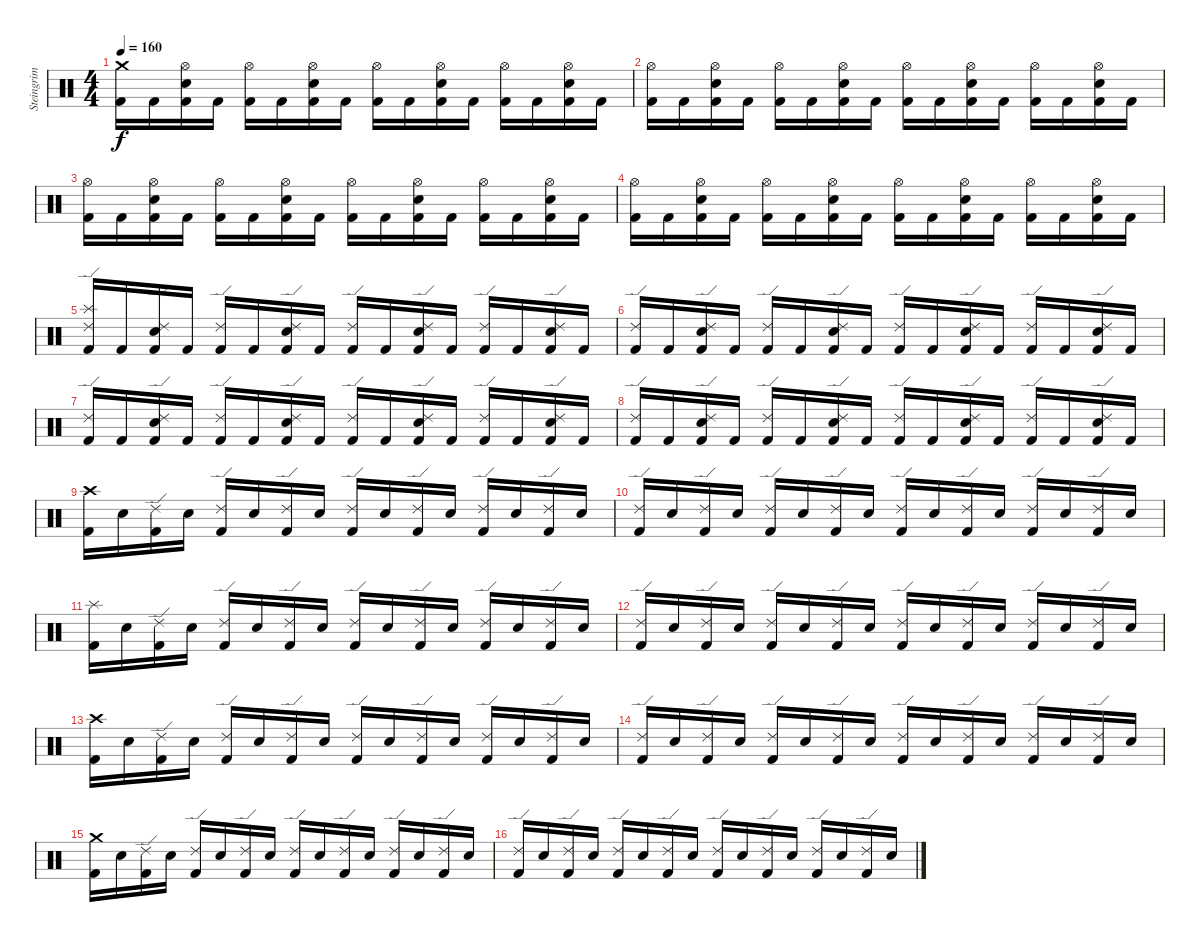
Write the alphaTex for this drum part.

\track ("Steingrim Trommur" "Steingrim ") {instrument percussion}
\staff {score}
\articulation defaults
\ts (4 4)
\tempo 160
\clef neutral
\ks c
("Crash medium (hit)" "Kick (hit) 2").16{dy f} "Kick (hit) 2".16 ("Hi-Hat (open)" "Electric Snare (hit)" "Kick (hit) 2").16 "Kick (hit) 2".16 ("Hi-Hat (open)" "Kick (hit) 2").16 "Kick (hit) 2".16 ("Hi-Hat (open)" "Electric Snare (hit)" "Kick (hit) 2").16 "Kick (hit) 2".16 ("Hi-Hat (open)" "Kick (hit) 2").16 "Kick (hit) 2".16 ("Hi-Hat (open)" "Electric Snare (hit)" "Kick (hit) 2").16 "Kick (hit) 2".16 ("Hi-Hat (open)" "Kick (hit) 2").16 "Kick (hit) 2".16 ("Hi-Hat (open)" "Electric Snare (hit)" "Kick (hit) 2").16 "Kick (hit) 2".16 |
("Hi-Hat (open)" "Kick (hit) 2").16 "Kick (hit) 2".16 ("Hi-Hat (open)" "Electric Snare (hit)" "Kick (hit) 2").16 "Kick (hit) 2".16 ("Hi-Hat (open)" "Kick (hit) 2").16 "Kick (hit) 2".16 ("Hi-Hat (open)" "Electric Snare (hit)" "Kick (hit) 2").16 "Kick (hit) 2".16 ("Hi-Hat (open)" "Kick (hit) 2").16 "Kick (hit) 2".16 ("Hi-Hat (open)" "Electric Snare (hit)" "Kick (hit) 2").16 "Kick (hit) 2".16 ("Hi-Hat (open)" "Kick (hit) 2").16 "Kick (hit) 2".16 ("Hi-Hat (open)" "Electric Snare (hit)" "Kick (hit) 2").16 "Kick (hit) 2".16 |
("Hi-Hat (open)" "Kick (hit) 2").16 "Kick (hit) 2".16 ("Hi-Hat (open)" "Electric Snare (hit)" "Kick (hit) 2").16 "Kick (hit) 2".16 ("Hi-Hat (open)" "Kick (hit) 2").16 "Kick (hit) 2".16 ("Hi-Hat (open)" "Electric Snare (hit)" "Kick (hit) 2").16 "Kick (hit) 2".16 ("Hi-Hat (open)" "Kick (hit) 2").16 "Kick (hit) 2".16 ("Hi-Hat (open)" "Electric Snare (hit)" "Kick (hit) 2").16 "Kick (hit) 2".16 ("Hi-Hat (open)" "Kick (hit) 2").16 "Kick (hit) 2".16 ("Hi-Hat (open)" "Electric Snare (hit)" "Kick (hit) 2").16 "Kick (hit) 2".16 |
("Hi-Hat (open)" "Kick (hit) 2").16 "Kick (hit) 2".16 ("Hi-Hat (open)" "Electric Snare (hit)" "Kick (hit) 2").16 "Kick (hit) 2".16 ("Hi-Hat (open)" "Kick (hit) 2").16 "Kick (hit) 2".16 ("Hi-Hat (open)" "Electric Snare (hit)" "Kick (hit) 2").16 "Kick (hit) 2".16 ("Hi-Hat (open)" "Kick (hit) 2").16 "Kick (hit) 2".16 ("Hi-Hat (open)" "Electric Snare (hit)" "Kick (hit) 2").16 "Kick (hit) 2".16 ("Hi-Hat (open)" "Kick (hit) 2").16 "Kick (hit) 2".16 ("Hi-Hat (open)" "Electric Snare (hit)" "Kick (hit) 2").16 "Kick (hit) 2".16 |
("Splash (hit)" "Ride (edge) 2" "Kick (hit) 2").16 "Kick (hit) 2".16 ("Ride (edge) 2" "Electric Snare (hit)" "Kick (hit) 2").16 "Kick (hit) 2".16 ("Ride (edge) 2" "Kick (hit) 2").16 "Kick (hit) 2".16 ("Ride (edge) 2" "Electric Snare (hit)" "Kick (hit) 2").16 "Kick (hit) 2".16 ("Ride (edge) 2" "Kick (hit) 2").16 "Kick (hit) 2".16 ("Ride (edge) 2" "Electric Snare (hit)" "Kick (hit) 2").16 "Kick (hit) 2".16 ("Ride (edge) 2" "Kick (hit) 2").16 "Kick (hit) 2".16 ("Ride (edge) 2" "Electric Snare (hit)" "Kick (hit) 2").16 "Kick (hit) 2".16 |
("Ride (edge) 2" "Kick (hit) 2").16 "Kick (hit) 2".16 ("Ride (edge) 2" "Electric Snare (hit)" "Kick (hit) 2").16 "Kick (hit) 2".16 ("Ride (edge) 2" "Kick (hit) 2").16 "Kick (hit) 2".16 ("Ride (edge) 2" "Electric Snare (hit)" "Kick (hit) 2").16 "Kick (hit) 2".16 ("Ride (edge) 2" "Kick (hit) 2").16 "Kick (hit) 2".16 ("Ride (edge) 2" "Electric Snare (hit)" "Kick (hit) 2").16 "Kick (hit) 2".16 ("Ride (edge) 2" "Kick (hit) 2").16 "Kick (hit) 2".16 ("Ride (edge) 2" "Electric Snare (hit)" "Kick (hit) 2").16 "Kick (hit) 2".16 |
("Ride (edge) 2" "Kick (hit) 2").16 "Kick (hit) 2".16 ("Ride (edge) 2" "Electric Snare (hit)" "Kick (hit) 2").16 "Kick (hit) 2".16 ("Ride (edge) 2" "Kick (hit) 2").16 "Kick (hit) 2".16 ("Ride (edge) 2" "Electric Snare (hit)" "Kick (hit) 2").16 "Kick (hit) 2".16 ("Ride (edge) 2" "Kick (hit) 2").16 "Kick (hit) 2".16 ("Ride (edge) 2" "Electric Snare (hit)" "Kick (hit) 2").16 "Kick (hit) 2".16 ("Ride (edge) 2" "Kick (hit) 2").16 "Kick (hit) 2".16 ("Ride (edge) 2" "Electric Snare (hit)" "Kick (hit) 2").16 "Kick (hit) 2".16 |
("Ride (edge) 2" "Kick (hit) 2").16 "Kick (hit) 2".16 ("Ride (edge) 2" "Electric Snare (hit)" "Kick (hit) 2").16 "Kick (hit) 2".16 ("Ride (edge) 2" "Kick (hit) 2").16 "Kick (hit) 2".16 ("Ride (edge) 2" "Electric Snare (hit)" "Kick (hit) 2").16 "Kick (hit) 2".16 ("Ride (edge) 2" "Kick (hit) 2").16 "Kick (hit) 2".16 ("Ride (edge) 2" "Electric Snare (hit)" "Kick (hit) 2").16 "Kick (hit) 2".16 ("Ride (edge) 2" "Kick (hit) 2").16 "Kick (hit) 2".16 ("Ride (edge) 2" "Electric Snare (hit)" "Kick (hit) 2").16 "Kick (hit) 2".16 |
("Crash high (hit)" "Kick (hit) 2").16 "Electric Snare (hit)".16 ("Ride (edge) 2" "Kick (hit) 2").16 "Electric Snare (hit)".16 ("Ride (edge) 2" "Kick (hit) 2").16 "Electric Snare (hit)".16 ("Ride (edge) 2" "Kick (hit) 2").16 "Electric Snare (hit)".16 ("Ride (edge) 2" "Kick (hit) 2").16 "Electric Snare (hit)".16 ("Ride (edge) 2" "Kick (hit) 2").16 "Electric Snare (hit)".16 ("Ride (edge) 2" "Kick (hit) 2").16 "Electric Snare (hit)".16 ("Ride (edge) 2" "Kick (hit) 2").16 "Electric Snare (hit)".16 |
("Ride (edge) 2" "Kick (hit) 2").16 "Electric Snare (hit)".16 ("Ride (edge) 2" "Kick (hit) 2").16 "Electric Snare (hit)".16 ("Ride (edge) 2" "Kick (hit) 2").16 "Electric Snare (hit)".16 ("Ride (edge) 2" "Kick (hit) 2").16 "Electric Snare (hit)".16 ("Ride (edge) 2" "Kick (hit) 2").16 "Electric Snare (hit)".16 ("Ride (edge) 2" "Kick (hit) 2").16 "Electric Snare (hit)".16 ("Ride (edge) 2" "Kick (hit) 2").16 "Electric Snare (hit)".16 ("Ride (edge) 2" "Kick (hit) 2").16 "Electric Snare (hit)".16 |
("Splash (hit)" "Kick (hit) 2").16 "Electric Snare (hit)".16 ("Ride (edge) 2" "Kick (hit) 2").16 "Electric Snare (hit)".16 ("Ride (edge) 2" "Kick (hit) 2").16 "Electric Snare (hit)".16 ("Ride (edge) 2" "Kick (hit) 2").16 "Electric Snare (hit)".16 ("Ride (edge) 2" "Kick (hit) 2").16 "Electric Snare (hit)".16 ("Ride (edge) 2" "Kick (hit) 2").16 "Electric Snare (hit)".16 ("Ride (edge) 2" "Kick (hit) 2").16 "Electric Snare (hit)".16 ("Ride (edge) 2" "Kick (hit) 2").16 "Electric Snare (hit)".16 |
("Ride (edge) 2" "Kick (hit) 2").16 "Electric Snare (hit)".16 ("Ride (edge) 2" "Kick (hit) 2").16 "Electric Snare (hit)".16 ("Ride (edge) 2" "Kick (hit) 2").16 "Electric Snare (hit)".16 ("Ride (edge) 2" "Kick (hit) 2").16 "Electric Snare (hit)".16 ("Ride (edge) 2" "Kick (hit) 2").16 "Electric Snare (hit)".16 ("Ride (edge) 2" "Kick (hit) 2").16 "Electric Snare (hit)".16 ("Ride (edge) 2" "Kick (hit) 2").16 "Electric Snare (hit)".16 ("Ride (edge) 2" "Kick (hit) 2").16 "Electric Snare (hit)".16 |
("Crash high (hit)" "Kick (hit) 2").16 "Electric Snare (hit)".16 ("Ride (edge) 2" "Kick (hit) 2").16 "Electric Snare (hit)".16 ("Ride (edge) 2" "Kick (hit) 2").16 "Electric Snare (hit)".16 ("Ride (edge) 2" "Kick (hit) 2").16 "Electric Snare (hit)".16 ("Ride (edge) 2" "Kick (hit) 2").16 "Electric Snare (hit)".16 ("Ride (edge) 2" "Kick (hit) 2").16 "Electric Snare (hit)".16 ("Ride (edge) 2" "Kick (hit) 2").16 "Electric Snare (hit)".16 ("Ride (edge) 2" "Kick (hit) 2").16 "Electric Snare (hit)".16 |
("Ride (edge) 2" "Kick (hit) 2").16 "Electric Snare (hit)".16 ("Ride (edge) 2" "Kick (hit) 2").16 "Electric Snare (hit)".16 ("Ride (edge) 2" "Kick (hit) 2").16 "Electric Snare (hit)".16 ("Ride (edge) 2" "Kick (hit) 2").16 "Electric Snare (hit)".16 ("Ride (edge) 2" "Kick (hit) 2").16 "Electric Snare (hit)".16 ("Ride (edge) 2" "Kick (hit) 2").16 "Electric Snare (hit)".16 ("Ride (edge) 2" "Kick (hit) 2").16 "Electric Snare (hit)".16 ("Ride (edge) 2" "Kick (hit) 2").16 "Electric Snare (hit)".16 |
("Crash medium (hit)" "Kick (hit) 2").16 "Electric Snare (hit)".16 ("Ride (edge) 2" "Kick (hit) 2").16 "Electric Snare (hit)".16 ("Ride (edge) 2" "Kick (hit) 2").16 "Electric Snare (hit)".16 ("Ride (edge) 2" "Kick (hit) 2").16 "Electric Snare (hit)".16 ("Ride (edge) 2" "Kick (hit) 2").16 "Electric Snare (hit)".16 ("Ride (edge) 2" "Kick (hit) 2").16 "Electric Snare (hit)".16 ("Ride (edge) 2" "Kick (hit) 2").16 "Electric Snare (hit)".16 ("Ride (edge) 2" "Kick (hit) 2").16 "Electric Snare (hit)".16 |
("Ride (edge) 2" "Kick (hit) 2").16 "Electric Snare (hit)".16 ("Ride (edge) 2" "Kick (hit) 2").16 "Electric Snare (hit)".16 ("Ride (edge) 2" "Kick (hit) 2").16 "Electric Snare (hit)".16 ("Ride (edge) 2" "Kick (hit) 2").16 "Electric Snare (hit)".16 ("Ride (edge) 2" "Kick (hit) 2").16 "Electric Snare (hit)".16 ("Ride (edge) 2" "Kick (hit) 2").16 "Electric Snare (hit)".16 ("Ride (edge) 2" "Kick (hit) 2").16 "Electric Snare (hit)".16 ("Ride (edge) 2" "Kick (hit) 2").16 "Electric Snare (hit)".16
